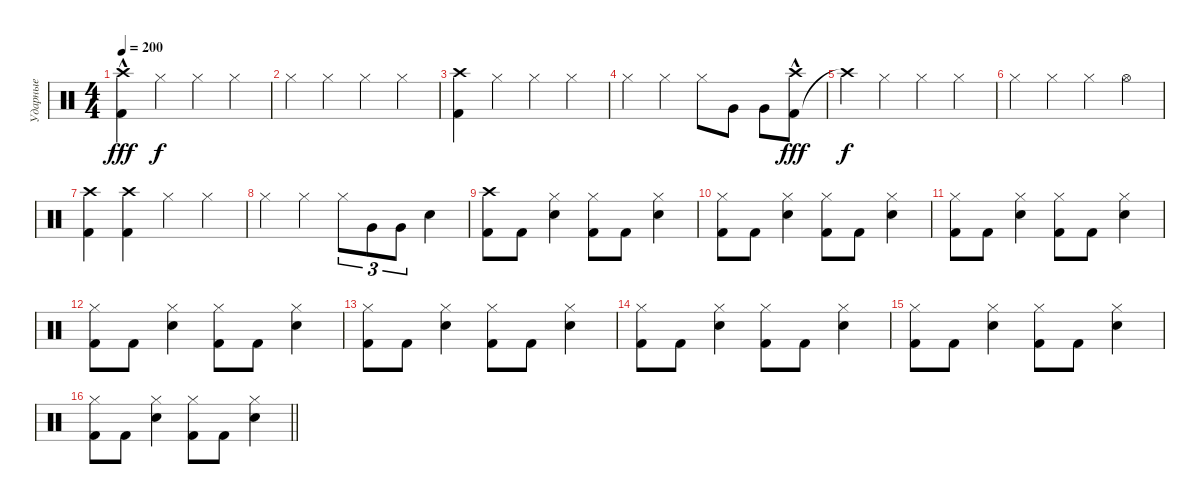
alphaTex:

\track ("Ударные" "Ударные") {instrument percussion}
\staff {score}
\articulation defaults
\ts (4 4)
\tempo 200
\clef neutral
\ks c
("Kick (hit) 2" "Crash high (hit)"{hac}).4{dy fff} "Hi-Hat (closed)".4{dy f} "Hi-Hat (closed)".4 "Hi-Hat (closed)".4 |
"Hi-Hat (closed)".4 "Hi-Hat (closed)".4 "Hi-Hat (closed)".4 "Hi-Hat (closed)".4 |
("Kick (hit) 2" "Crash high (hit)").4 "Hi-Hat (closed)".4 "Hi-Hat (closed)".4 "Hi-Hat (closed)".4 |
"Hi-Hat (closed)".4 "Hi-Hat (closed)".4 "Hi-Hat (closed)".8 "Very Low Tom (hit)".8 "Very Low Tom (hit)".8 ("Kick (hit) 2" "Crash high (hit)"{hac}).8{dy fff} |
"Crash high (hit)"{t}.4{dy f} "Hi-Hat (closed)".4 "Hi-Hat (closed)".4 "Hi-Hat (closed)".4 |
"Hi-Hat (closed)".4 "Hi-Hat (closed)".4 "Hi-Hat (closed)".4 "Hi-Hat (open)".4 |
("Kick (hit) 2" "Crash high (hit)").4 ("Kick (hit) 2" "Crash high (hit)").4 "Hi-Hat (closed)".4 "Hi-Hat (closed)".4 |
"Hi-Hat (closed)".4 "Hi-Hat (closed)".4 "Hi-Hat (closed)".8{tu (3 2)} "Very Low Tom (hit)".8{tu (3 2)} "Very Low Tom (hit)".8{tu (3 2)} "Snare (hit) 2".4 |
("Kick (hit) 2" "Crash high (hit)").8 "Kick (hit) 2".8 ("Snare (hit) 2" "Hi-Hat (closed)").4 ("Kick (hit) 2" "Hi-Hat (closed)").8 "Kick (hit) 2".8 ("Snare (hit) 2" "Hi-Hat (closed)").4 |
("Kick (hit) 2" "Hi-Hat (closed)").8 "Kick (hit) 2".8 ("Snare (hit) 2" "Hi-Hat (closed)").4 ("Kick (hit) 2" "Hi-Hat (closed)").8 "Kick (hit) 2".8 ("Snare (hit) 2" "Hi-Hat (closed)").4 |
("Kick (hit) 2" "Hi-Hat (closed)").8 "Kick (hit) 2".8 ("Snare (hit) 2" "Hi-Hat (closed)").4 ("Kick (hit) 2" "Hi-Hat (closed)").8 "Kick (hit) 2".8 ("Snare (hit) 2" "Hi-Hat (closed)").4 |
("Kick (hit) 2" "Hi-Hat (closed)").8 "Kick (hit) 2".8 ("Snare (hit) 2" "Hi-Hat (closed)").4 ("Kick (hit) 2" "Hi-Hat (closed)").8 "Kick (hit) 2".8 ("Snare (hit) 2" "Hi-Hat (closed)").4 |
("Kick (hit) 2" "Hi-Hat (closed)").8 "Kick (hit) 2".8 ("Snare (hit) 2" "Hi-Hat (closed)").4 ("Kick (hit) 2" "Hi-Hat (closed)").8 "Kick (hit) 2".8 ("Snare (hit) 2" "Hi-Hat (closed)").4 |
("Kick (hit) 2" "Hi-Hat (closed)").8 "Kick (hit) 2".8 ("Snare (hit) 2" "Hi-Hat (closed)").4 ("Kick (hit) 2" "Hi-Hat (closed)").8 "Kick (hit) 2".8 ("Snare (hit) 2" "Hi-Hat (closed)").4 |
("Kick (hit) 2" "Hi-Hat (closed)").8 "Kick (hit) 2".8 ("Snare (hit) 2" "Hi-Hat (closed)").4 ("Kick (hit) 2" "Hi-Hat (closed)").8 "Kick (hit) 2".8 ("Snare (hit) 2" "Hi-Hat (closed)").4 |
\barLineRight lightlight
("Kick (hit) 2" "Hi-Hat (closed)").8 "Kick (hit) 2".8 ("Snare (hit) 2" "Hi-Hat (closed)").4 ("Kick (hit) 2" "Hi-Hat (closed)").8 "Kick (hit) 2".8 ("Snare (hit) 2" "Hi-Hat (closed)").4
